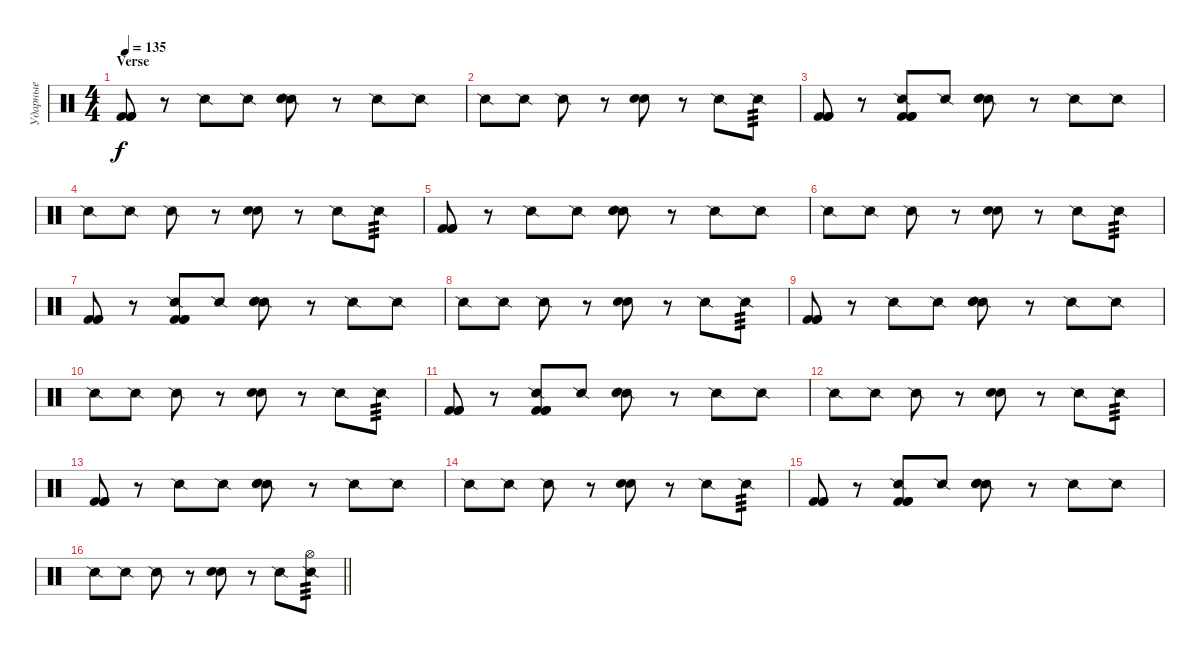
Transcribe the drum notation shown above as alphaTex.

\track ("Ударные" "Ударные") {instrument percussion}
\staff {score}
\articulation defaults
\ts (4 4)
\section ("" "Verse")
\tempo 135
\clef neutral
\ks c
("Kick (hit) 2" "Kick (hit) 2" "Kick (hit) 2").8{dy f} r.8 "Snare (side stick) 2".8 "Snare (side stick) 2".8 ("Snare (side stick) 2" "Electric Snare (hit)" "Electric Snare (hit)").8 r.8 "Snare (side stick) 2".8 "Snare (side stick) 2".8 |
"Snare (side stick) 2".8 "Snare (side stick) 2".8 "Snare (side stick) 2".8 r.8 ("Electric Snare (hit)" "Electric Snare (hit)").8 r.8 "Snare (side stick) 2".8 "Snare (side stick) 2".8{tp 3} |
("Kick (hit) 2" "Kick (hit) 2" "Kick (hit) 2").8 r.8 ("Snare (side stick) 2" "Kick (hit) 2" "Kick (hit) 2" "Kick (hit) 2").8 "Snare (side stick) 2".8 ("Snare (side stick) 2" "Electric Snare (hit)" "Electric Snare (hit)").8 r.8 "Snare (side stick) 2".8 "Snare (side stick) 2".8 |
"Snare (side stick) 2".8 "Snare (side stick) 2".8 "Snare (side stick) 2".8 r.8 ("Electric Snare (hit)" "Electric Snare (hit)").8 r.8 "Snare (side stick) 2".8 "Snare (side stick) 2".8{tp 3} |
("Kick (hit) 2" "Kick (hit) 2" "Kick (hit) 2").8 r.8 "Snare (side stick) 2".8 "Snare (side stick) 2".8 ("Snare (side stick) 2" "Electric Snare (hit)" "Electric Snare (hit)").8 r.8 "Snare (side stick) 2".8 "Snare (side stick) 2".8 |
"Snare (side stick) 2".8 "Snare (side stick) 2".8 "Snare (side stick) 2".8 r.8 ("Electric Snare (hit)" "Electric Snare (hit)").8 r.8 "Snare (side stick) 2".8 "Snare (side stick) 2".8{tp 3} |
("Kick (hit) 2" "Kick (hit) 2" "Kick (hit) 2").8 r.8 ("Snare (side stick) 2" "Kick (hit) 2" "Kick (hit) 2" "Kick (hit) 2").8 "Snare (side stick) 2".8 ("Snare (side stick) 2" "Electric Snare (hit)" "Electric Snare (hit)").8 r.8 "Snare (side stick) 2".8 "Snare (side stick) 2".8 |
"Snare (side stick) 2".8 "Snare (side stick) 2".8 "Snare (side stick) 2".8 r.8 ("Electric Snare (hit)" "Electric Snare (hit)").8 r.8 "Snare (side stick) 2".8 "Snare (side stick) 2".8{tp 3} |
("Kick (hit) 2" "Kick (hit) 2" "Kick (hit) 2").8 r.8 "Snare (side stick) 2".8 "Snare (side stick) 2".8 ("Snare (side stick) 2" "Electric Snare (hit)" "Electric Snare (hit)").8 r.8 "Snare (side stick) 2".8 "Snare (side stick) 2".8 |
"Snare (side stick) 2".8 "Snare (side stick) 2".8 "Snare (side stick) 2".8 r.8 ("Electric Snare (hit)" "Electric Snare (hit)").8 r.8 "Snare (side stick) 2".8 "Snare (side stick) 2".8{tp 3} |
("Kick (hit) 2" "Kick (hit) 2" "Kick (hit) 2").8 r.8 ("Snare (side stick) 2" "Kick (hit) 2" "Kick (hit) 2" "Kick (hit) 2").8 "Snare (side stick) 2".8 ("Snare (side stick) 2" "Electric Snare (hit)" "Electric Snare (hit)").8 r.8 "Snare (side stick) 2".8 "Snare (side stick) 2".8 |
"Snare (side stick) 2".8 "Snare (side stick) 2".8 "Snare (side stick) 2".8 r.8 ("Electric Snare (hit)" "Electric Snare (hit)").8 r.8 "Snare (side stick) 2".8 "Snare (side stick) 2".8{tp 3} |
("Kick (hit) 2" "Kick (hit) 2" "Kick (hit) 2").8 r.8 "Snare (side stick) 2".8 "Snare (side stick) 2".8 ("Snare (side stick) 2" "Electric Snare (hit)" "Electric Snare (hit)").8 r.8 "Snare (side stick) 2".8 "Snare (side stick) 2".8 |
"Snare (side stick) 2".8 "Snare (side stick) 2".8 "Snare (side stick) 2".8 r.8 ("Electric Snare (hit)" "Electric Snare (hit)").8 r.8 "Snare (side stick) 2".8 "Snare (side stick) 2".8{tp 3} |
("Kick (hit) 2" "Kick (hit) 2" "Kick (hit) 2").8 r.8 ("Snare (side stick) 2" "Kick (hit) 2" "Kick (hit) 2" "Kick (hit) 2").8 "Snare (side stick) 2".8 ("Snare (side stick) 2" "Electric Snare (hit)" "Electric Snare (hit)").8 r.8 "Snare (side stick) 2".8 "Snare (side stick) 2".8 |
\barLineRight lightlight "Snare (side stick) 2".8 "Snare (side stick) 2".8 "Snare (side stick) 2".8
r.8 ("Electric Snare (hit)" "Electric Snare (hit)").8 r.8 "Snare (side stick) 2".8 ("Snare (side stick) 2" "Hi-Hat (open)").8{tp 3}
